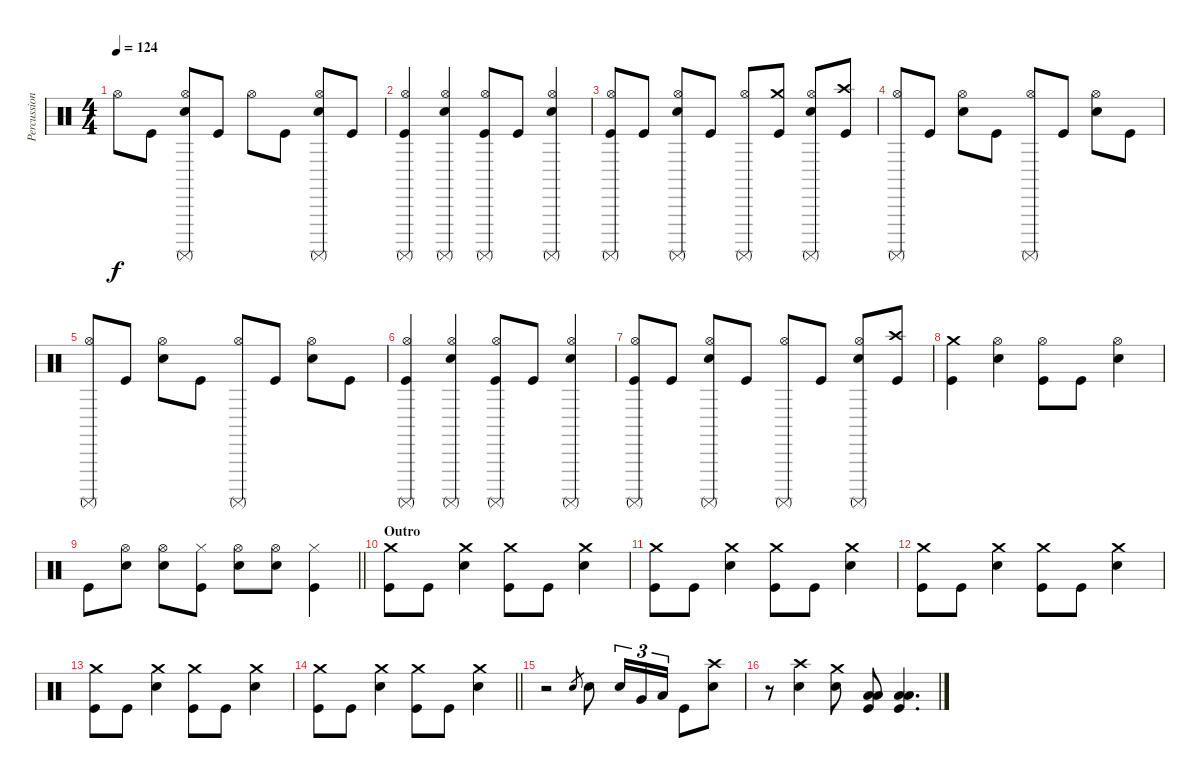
\track ("Percussion" "Percussion") {instrument percussion}
\staff {score}
\articulation defaults
\ts (4 4)
\tempo 124
\clef neutral
\ks c "Hi-Hat (open)".8{dy f} "Kick (hit)".8
("Hi-Hat (open)" "Snare (hit) 2" "Surdo (mute)").8 "Kick (hit)".8 "Hi-Hat (open)".8 "Kick (hit)".8 ("Hi-Hat (open)" "Snare (hit) 2" "Surdo (mute)").8 "Kick (hit)".8 |
("Hi-Hat (open)" "Surdo (mute)" "Kick (hit)").4 ("Hi-Hat (open)" "Snare (hit) 2" "Surdo (mute)").4 ("Hi-Hat (open)" "Surdo (mute)" "Kick (hit)").8 "Kick (hit)".8 ("Hi-Hat (open)" "Snare (hit) 2" "Surdo (mute)").4 |
("Hi-Hat (open)" "Surdo (mute)" "Kick (hit)").8 "Kick (hit)".8 ("Hi-Hat (open)" "Snare (hit) 2" "Surdo (mute)").8 "Kick (hit)".8 ("Hi-Hat (open)" "Surdo (mute)").8 ("Crash medium (hit)" "Kick (hit)").8 ("Hi-Hat (open)" "Snare (hit) 2" "Surdo (mute)").8 ("Crash high (hit)" "Kick (hit)").8 |
("Hi-Hat (open)" "Surdo (mute)").8 "Kick (hit)".8 ("Hi-Hat (open)" "Snare (hit) 2").8 "Kick (hit)".8 ("Hi-Hat (open)" "Surdo (mute)").8 "Kick (hit)".8 ("Hi-Hat (open)" "Snare (hit) 2").8 "Kick (hit)".8 |
("Hi-Hat (open)" "Surdo (mute)").8 "Kick (hit)".8 ("Hi-Hat (open)" "Snare (hit) 2").8 "Kick (hit)".8 ("Hi-Hat (open)" "Surdo (mute)").8 "Kick (hit)".8 ("Hi-Hat (open)" "Snare (hit) 2").8 "Kick (hit)".8 |
("Hi-Hat (open)" "Surdo (mute)" "Kick (hit)").4 ("Hi-Hat (open)" "Snare (hit) 2" "Surdo (mute)").4 ("Hi-Hat (open)" "Surdo (mute)" "Kick (hit)").8 "Kick (hit)".8 ("Hi-Hat (open)" "Snare (hit) 2" "Surdo (mute)").4 |
("Hi-Hat (open)" "Surdo (mute)" "Kick (hit)").8 "Kick (hit)".8 ("Hi-Hat (open)" "Snare (hit) 2" "Surdo (mute)").8 "Kick (hit)".8 ("Hi-Hat (open)" "Surdo (mute)").8 "Kick (hit)".8 ("Hi-Hat (open)" "Snare (hit) 2" "Surdo (mute)").8 ("Crash high (hit)" "Kick (hit)").8 |
("Crash medium (hit)" "Kick (hit)").4 ("Hi-Hat (open)" "Snare (hit) 2").4 ("Hi-Hat (open)" "Kick (hit)").8 "Kick (hit)".8 ("Hi-Hat (open)" "Snare (hit) 2").4 |
\barLineRight lightlight "Kick (hit)".8
("Hi-Hat (open)" "Snare (hit) 2").8 ("Hi-Hat (open)" "Snare (hit) 2").8 ("Hi-Hat (closed)" "Kick (hit)").8 ("Hi-Hat (open)" "Snare (hit) 2").8 ("Hi-Hat (open)" "Snare (hit) 2").8 ("Hi-Hat (closed)" "Kick (hit)").4 |
\section ("" "Outro")
("Crash medium (hit)" "Kick (hit)").8 "Kick (hit)".8 ("Crash medium (hit)" "Snare (hit) 2").4 ("Crash medium (hit)" "Kick (hit)").8 "Kick (hit)".8 ("Crash medium (hit)" "Snare (hit) 2").4 |
("Crash medium (hit)" "Kick (hit)").8 "Kick (hit)".8 ("Crash medium (hit)" "Snare (hit) 2").4 ("Crash medium (hit)" "Kick (hit)").8 "Kick (hit)".8 ("Crash medium (hit)" "Snare (hit) 2").4 |
("Crash medium (hit)" "Kick (hit)").8 "Kick (hit)".8 ("Crash medium (hit)" "Snare (hit) 2").4 ("Crash medium (hit)" "Kick (hit)").8 "Kick (hit)".8 ("Crash medium (hit)" "Snare (hit) 2").4 |
("Crash medium (hit)" "Kick (hit)").8 "Kick (hit)".8 ("Crash medium (hit)" "Snare (hit) 2").4 ("Crash medium (hit)" "Kick (hit)").8 "Kick (hit)".8 ("Crash medium (hit)" "Snare (hit) 2").4 |
\barLineRight lightlight
("Crash medium (hit)" "Kick (hit)").8 "Kick (hit)".8 ("Crash medium (hit)" "Snare (hit) 2").4 ("Crash medium (hit)" "Kick (hit)").8 "Kick (hit)".8 ("Crash medium (hit)" "Snare (hit) 2").4 |
\section ("" "")
r.2 "Snare (hit) 2".8{gr} "Snare (hit) 2".8 "Snare (hit) 2".16{tu (3 2)} "Very Low Tom (hit)".16{tu (3 2)} "Low Tom (hit)".16{tu (3 2)} "Kick (hit)".8 ("Crash high (hit)" "Snare (hit) 2").8 |
r.8 ("Crash high (hit)" "Snare (hit) 2").4 ("Crash medium (hit)" "Snare (hit) 2").8 ("Low Tom (hit)" "Low Floor Tom (hit)" "Kick (hit)").8 ("Low Tom (hit)" "Low Floor Tom (hit)" "Kick (hit)").4{d}
